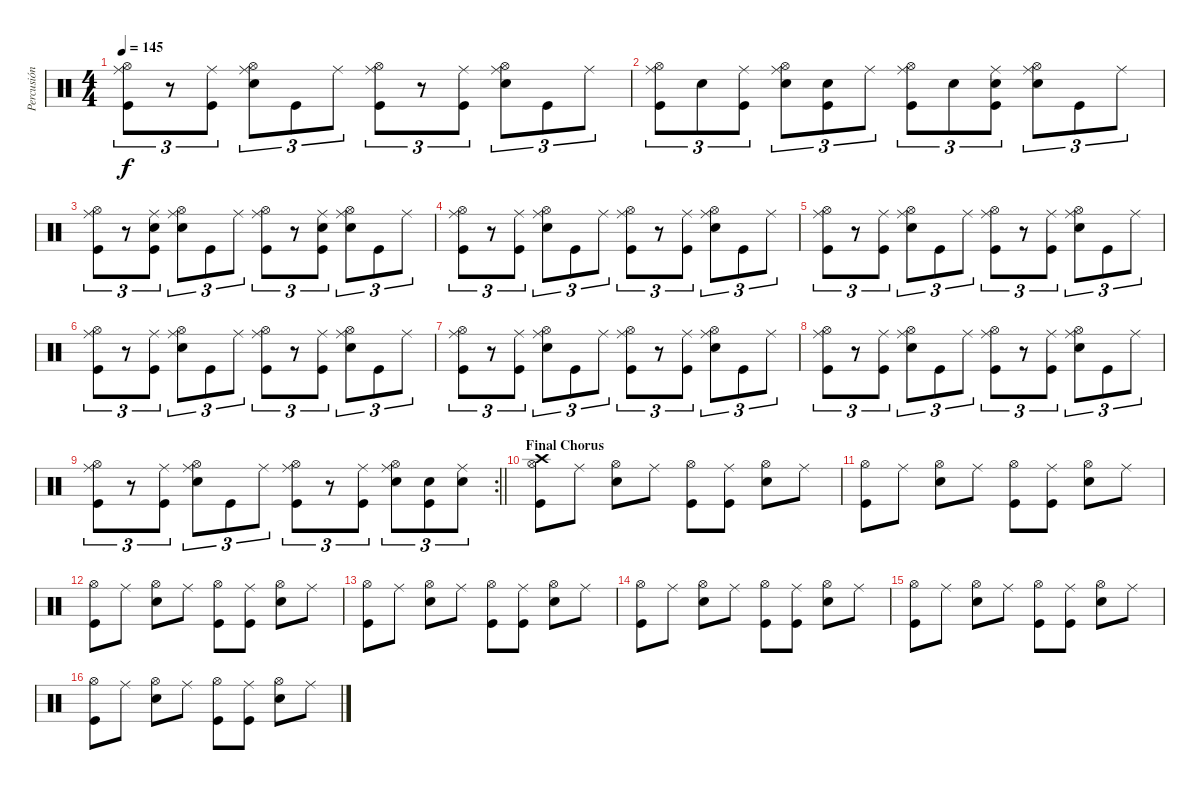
\track ("Percusión" "Percusión") {instrument percussion}
\staff {score}
\articulation defaults
\ts (4 4)
\tempo 145
\clef neutral
\ks c
("Ride (middle)" "Hi-Hat (open)" "Kick (hit)").8{tu (3 2) dy f} r.8{tu (3 2)} ("Ride (middle)" "Kick (hit)").8{tu (3 2)} ("Ride (middle)" "Hi-Hat (open)" "Electric Snare (hit)").8{tu (3 2)} "Kick (hit)".8{tu (3 2)} "Ride (middle)".8{tu (3 2)} ("Ride (middle)" "Hi-Hat (open)" "Kick (hit)").8{tu (3 2)} r.8{tu (3 2)} ("Ride (middle)" "Kick (hit)").8{tu (3 2)} ("Ride (middle)" "Hi-Hat (open)" "Electric Snare (hit)").8{tu (3 2)} "Kick (hit)".8{tu (3 2)} "Ride (middle)".8{tu (3 2)} |
("Ride (middle)" "Hi-Hat (open)" "Kick (hit)").8{tu (3 2)} "Electric Snare (hit)".8{tu (3 2)} ("Ride (middle)" "Kick (hit)").8{tu (3 2)} ("Ride (middle)" "Hi-Hat (open)" "Electric Snare (hit)").8{tu (3 2)} ("Electric Snare (hit)" "Kick (hit)").8{tu (3 2)} "Ride (middle)".8{tu (3 2)} ("Ride (middle)" "Hi-Hat (open)" "Kick (hit)").8{tu (3 2)} "Electric Snare (hit)".8{tu (3 2)} ("Ride (middle)" "Electric Snare (hit)" "Kick (hit)").8{tu (3 2)} ("Ride (middle)" "Hi-Hat (open)" "Electric Snare (hit)").8{tu (3 2)} "Kick (hit)".8{tu (3 2)} "Ride (middle)".8{tu (3 2)} |
("Ride (middle)" "Hi-Hat (open)" "Kick (hit)").8{tu (3 2)} r.8{tu (3 2)} ("Ride (middle)" "Electric Snare (hit)" "Kick (hit)").8{tu (3 2)} ("Ride (middle)" "Hi-Hat (open)" "Electric Snare (hit)").8{tu (3 2)} "Kick (hit)".8{tu (3 2)} "Ride (middle)".8{tu (3 2)} ("Ride (middle)" "Hi-Hat (open)" "Kick (hit)").8{tu (3 2)} r.8{tu (3 2)} ("Ride (middle)" "Electric Snare (hit)" "Kick (hit)").8{tu (3 2)} ("Ride (middle)" "Hi-Hat (open)" "Electric Snare (hit)").8{tu (3 2)} "Kick (hit)".8{tu (3 2)} "Ride (middle)".8{tu (3 2)} |
("Ride (middle)" "Hi-Hat (open)" "Kick (hit)").8{tu (3 2)} r.8{tu (3 2)} ("Ride (middle)" "Kick (hit)").8{tu (3 2)} ("Ride (middle)" "Hi-Hat (open)" "Electric Snare (hit)").8{tu (3 2)} "Kick (hit)".8{tu (3 2)} "Ride (middle)".8{tu (3 2)} ("Ride (middle)" "Hi-Hat (open)" "Kick (hit)").8{tu (3 2)} r.8{tu (3 2)} ("Ride (middle)" "Kick (hit)").8{tu (3 2)} ("Ride (middle)" "Hi-Hat (open)" "Electric Snare (hit)").8{tu (3 2)} "Kick (hit)".8{tu (3 2)} "Ride (middle)".8{tu (3 2)} |
("Ride (middle)" "Hi-Hat (open)" "Kick (hit)").8{tu (3 2)} r.8{tu (3 2)} ("Ride (middle)" "Kick (hit)").8{tu (3 2)} ("Ride (middle)" "Hi-Hat (open)" "Electric Snare (hit)").8{tu (3 2)} "Kick (hit)".8{tu (3 2)} "Ride (middle)".8{tu (3 2)} ("Ride (middle)" "Hi-Hat (open)" "Kick (hit)").8{tu (3 2)} r.8{tu (3 2)} ("Ride (middle)" "Kick (hit)").8{tu (3 2)} ("Ride (middle)" "Hi-Hat (open)" "Electric Snare (hit)").8{tu (3 2)} "Kick (hit)".8{tu (3 2)} "Ride (middle)".8{tu (3 2)} |
("Ride (middle)" "Hi-Hat (open)" "Kick (hit)").8{tu (3 2)} r.8{tu (3 2)} ("Ride (middle)" "Kick (hit)").8{tu (3 2)} ("Ride (middle)" "Hi-Hat (open)" "Electric Snare (hit)").8{tu (3 2)} "Kick (hit)".8{tu (3 2)} "Ride (middle)".8{tu (3 2)} ("Ride (middle)" "Hi-Hat (open)" "Kick (hit)").8{tu (3 2)} r.8{tu (3 2)} ("Ride (middle)" "Kick (hit)").8{tu (3 2)} ("Ride (middle)" "Hi-Hat (open)" "Electric Snare (hit)").8{tu (3 2)} "Kick (hit)".8{tu (3 2)} "Ride (middle)".8{tu (3 2)} |
("Ride (middle)" "Hi-Hat (open)" "Kick (hit)").8{tu (3 2)} r.8{tu (3 2)} ("Ride (middle)" "Kick (hit)").8{tu (3 2)} ("Ride (middle)" "Hi-Hat (open)" "Electric Snare (hit)").8{tu (3 2)} "Kick (hit)".8{tu (3 2)} "Ride (middle)".8{tu (3 2)} ("Ride (middle)" "Hi-Hat (open)" "Kick (hit)").8{tu (3 2)} r.8{tu (3 2)} ("Ride (middle)" "Kick (hit)").8{tu (3 2)} ("Ride (middle)" "Hi-Hat (open)" "Electric Snare (hit)").8{tu (3 2)} "Kick (hit)".8{tu (3 2)} "Ride (middle)".8{tu (3 2)} |
("Ride (middle)" "Hi-Hat (open)" "Kick (hit)").8{tu (3 2)} r.8{tu (3 2)} ("Ride (middle)" "Kick (hit)").8{tu (3 2)} ("Ride (middle)" "Hi-Hat (open)" "Electric Snare (hit)").8{tu (3 2)} "Kick (hit)".8{tu (3 2)} "Ride (middle)".8{tu (3 2)} ("Ride (middle)" "Hi-Hat (open)" "Kick (hit)").8{tu (3 2)} r.8{tu (3 2)} ("Ride (middle)" "Kick (hit)").8{tu (3 2)} ("Ride (middle)" "Hi-Hat (open)" "Electric Snare (hit)").8{tu (3 2)} "Kick (hit)".8{tu (3 2)} "Ride (middle)".8{tu (3 2)} |
\rc 2
\barLineRight lightlight
("Ride (middle)" "Hi-Hat (open)" "Kick (hit)").8{tu (3 2)} r.8{tu (3 2)} ("Ride (middle)" "Kick (hit)").8{tu (3 2)} ("Ride (middle)" "Hi-Hat (open)" "Electric Snare (hit)").8{tu (3 2)} "Kick (hit)".8{tu (3 2)} "Ride (middle)".8{tu (3 2)} ("Ride (middle)" "Hi-Hat (open)" "Kick (hit)").8{tu (3 2)} r.8{tu (3 2)} ("Ride (middle)" "Kick (hit)").8{tu (3 2)} ("Ride (middle)" "Hi-Hat (open)" "Electric Snare (hit)").8{tu (3 2)} ("Electric Snare (hit)" "Kick (hit)").8{tu (3 2)} ("Ride (middle)" "Electric Snare (hit)").8{tu (3 2)} |
\section ("" "Final Chorus")
("Crash high (hit)" "Hi-Hat (open)" "Kick (hit)").8 "Ride (middle)".8 ("Hi-Hat (open)" "Electric Snare (hit)").8 "Ride (middle)".8 ("Hi-Hat (open)" "Kick (hit)").8 ("Ride (middle)" "Kick (hit)").8 ("Hi-Hat (open)" "Electric Snare (hit)").8 "Ride (middle)".8 |
("Hi-Hat (open)" "Kick (hit)").8 "Ride (middle)".8 ("Hi-Hat (open)" "Electric Snare (hit)").8 "Ride (middle)".8 ("Hi-Hat (open)" "Kick (hit)").8 ("Ride (middle)" "Kick (hit)").8 ("Hi-Hat (open)" "Electric Snare (hit)").8 "Ride (middle)".8 |
("Hi-Hat (open)" "Kick (hit)").8 "Ride (middle)".8 ("Hi-Hat (open)" "Electric Snare (hit)").8 "Ride (middle)".8 ("Hi-Hat (open)" "Kick (hit)").8 ("Ride (middle)" "Kick (hit)").8 ("Hi-Hat (open)" "Electric Snare (hit)").8 "Ride (middle)".8 |
("Hi-Hat (open)" "Kick (hit)").8 "Ride (middle)".8 ("Hi-Hat (open)" "Electric Snare (hit)").8 "Ride (middle)".8 ("Hi-Hat (open)" "Kick (hit)").8 ("Ride (middle)" "Kick (hit)").8 ("Hi-Hat (open)" "Electric Snare (hit)").8 "Ride (middle)".8 |
("Hi-Hat (open)" "Kick (hit)").8 "Ride (middle)".8 ("Hi-Hat (open)" "Electric Snare (hit)").8 "Ride (middle)".8 ("Hi-Hat (open)" "Kick (hit)").8 ("Ride (middle)" "Kick (hit)").8 ("Hi-Hat (open)" "Electric Snare (hit)").8 "Ride (middle)".8 |
("Hi-Hat (open)" "Kick (hit)").8 "Ride (middle)".8 ("Hi-Hat (open)" "Electric Snare (hit)").8 "Ride (middle)".8 ("Hi-Hat (open)" "Kick (hit)").8 ("Ride (middle)" "Kick (hit)").8 ("Hi-Hat (open)" "Electric Snare (hit)").8 "Ride (middle)".8 |
("Hi-Hat (open)" "Kick (hit)").8 "Ride (middle)".8 ("Hi-Hat (open)" "Electric Snare (hit)").8 "Ride (middle)".8 ("Hi-Hat (open)" "Kick (hit)").8 ("Ride (middle)" "Kick (hit)").8 ("Hi-Hat (open)" "Electric Snare (hit)").8 "Ride (middle)".8
